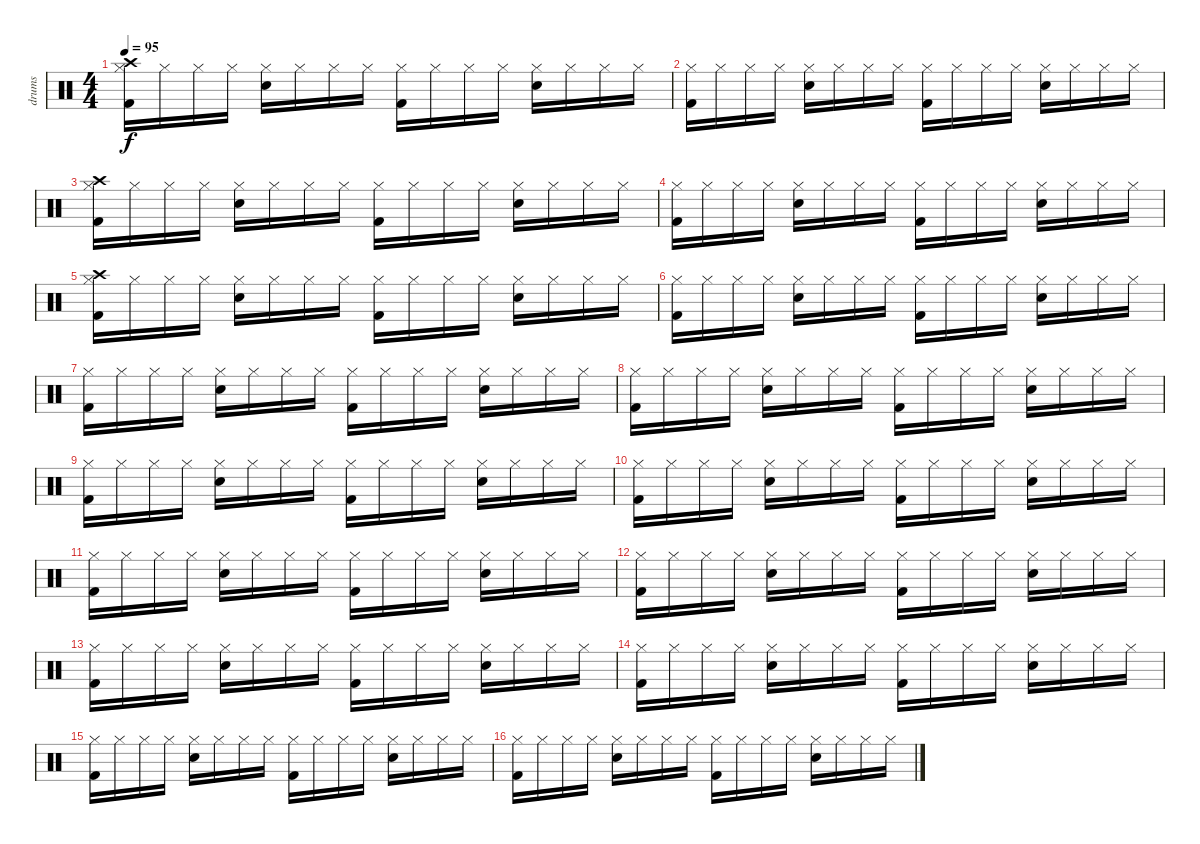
\track ("drums" "drums") {instrument percussion}
\staff {score}
\articulation defaults
\ts (4 4)
\tempo 95
\clef neutral
\ks c
("Crash high (hit)" "Kick (hit) 2" "Hi-Hat (closed)").16{dy f} "Hi-Hat (closed)".16 "Hi-Hat (closed)".16 "Hi-Hat (closed)".16 ("Snare (hit) 2" "Hi-Hat (closed)").16 "Hi-Hat (closed)".16 "Hi-Hat (closed)".16 "Hi-Hat (closed)".16 ("Kick (hit) 2" "Hi-Hat (closed)").16 "Hi-Hat (closed)".16 "Hi-Hat (closed)".16 "Hi-Hat (closed)".16 ("Snare (hit) 2" "Hi-Hat (closed)").16 "Hi-Hat (closed)".16 "Hi-Hat (closed)".16 "Hi-Hat (closed)".16 |
("Kick (hit) 2" "Hi-Hat (closed)").16 "Hi-Hat (closed)".16 "Hi-Hat (closed)".16 "Hi-Hat (closed)".16 ("Snare (hit) 2" "Hi-Hat (closed)").16 "Hi-Hat (closed)".16 "Hi-Hat (closed)".16 "Hi-Hat (closed)".16 ("Kick (hit) 2" "Hi-Hat (closed)").16 "Hi-Hat (closed)".16 "Hi-Hat (closed)".16 "Hi-Hat (closed)".16 ("Snare (hit) 2" "Hi-Hat (closed)").16 "Hi-Hat (closed)".16 "Hi-Hat (closed)".16 "Hi-Hat (closed)".16 |
("Crash high (hit)" "Kick (hit) 2" "Hi-Hat (closed)").16 "Hi-Hat (closed)".16 "Hi-Hat (closed)".16 "Hi-Hat (closed)".16 ("Snare (hit) 2" "Hi-Hat (closed)").16 "Hi-Hat (closed)".16 "Hi-Hat (closed)".16 "Hi-Hat (closed)".16 ("Kick (hit) 2" "Hi-Hat (closed)").16 "Hi-Hat (closed)".16 "Hi-Hat (closed)".16 "Hi-Hat (closed)".16 ("Snare (hit) 2" "Hi-Hat (closed)").16 "Hi-Hat (closed)".16 "Hi-Hat (closed)".16 "Hi-Hat (closed)".16 |
("Kick (hit) 2" "Hi-Hat (closed)").16 "Hi-Hat (closed)".16 "Hi-Hat (closed)".16 "Hi-Hat (closed)".16 ("Snare (hit) 2" "Hi-Hat (closed)").16 "Hi-Hat (closed)".16 "Hi-Hat (closed)".16 "Hi-Hat (closed)".16 ("Kick (hit) 2" "Hi-Hat (closed)").16 "Hi-Hat (closed)".16 "Hi-Hat (closed)".16 "Hi-Hat (closed)".16 ("Snare (hit) 2" "Hi-Hat (closed)").16 "Hi-Hat (closed)".16 "Hi-Hat (closed)".16 "Hi-Hat (closed)".16 |
("Crash high (hit)" "Kick (hit) 2" "Hi-Hat (closed)").16 "Hi-Hat (closed)".16 "Hi-Hat (closed)".16 "Hi-Hat (closed)".16 ("Snare (hit) 2" "Hi-Hat (closed)").16 "Hi-Hat (closed)".16 "Hi-Hat (closed)".16 "Hi-Hat (closed)".16 ("Kick (hit) 2" "Hi-Hat (closed)").16 "Hi-Hat (closed)".16 "Hi-Hat (closed)".16 "Hi-Hat (closed)".16 ("Snare (hit) 2" "Hi-Hat (closed)").16 "Hi-Hat (closed)".16 "Hi-Hat (closed)".16 "Hi-Hat (closed)".16 |
("Kick (hit) 2" "Hi-Hat (closed)").16 "Hi-Hat (closed)".16 "Hi-Hat (closed)".16 "Hi-Hat (closed)".16 ("Snare (hit) 2" "Hi-Hat (closed)").16 "Hi-Hat (closed)".16 "Hi-Hat (closed)".16 "Hi-Hat (closed)".16 ("Kick (hit) 2" "Hi-Hat (closed)").16 "Hi-Hat (closed)".16 "Hi-Hat (closed)".16 "Hi-Hat (closed)".16 ("Snare (hit) 2" "Hi-Hat (closed)").16 "Hi-Hat (closed)".16 "Hi-Hat (closed)".16 "Hi-Hat (closed)".16 |
("Kick (hit) 2" "Hi-Hat (closed)").16 "Hi-Hat (closed)".16 "Hi-Hat (closed)".16 "Hi-Hat (closed)".16 ("Snare (hit) 2" "Hi-Hat (closed)").16 "Hi-Hat (closed)".16 "Hi-Hat (closed)".16 "Hi-Hat (closed)".16 ("Kick (hit) 2" "Hi-Hat (closed)").16 "Hi-Hat (closed)".16 "Hi-Hat (closed)".16 "Hi-Hat (closed)".16 ("Snare (hit) 2" "Hi-Hat (closed)").16 "Hi-Hat (closed)".16 "Hi-Hat (closed)".16 "Hi-Hat (closed)".16 |
("Kick (hit) 2" "Hi-Hat (closed)").16 "Hi-Hat (closed)".16 "Hi-Hat (closed)".16 "Hi-Hat (closed)".16 ("Snare (hit) 2" "Hi-Hat (closed)").16 "Hi-Hat (closed)".16 "Hi-Hat (closed)".16 "Hi-Hat (closed)".16 ("Kick (hit) 2" "Hi-Hat (closed)").16 "Hi-Hat (closed)".16 "Hi-Hat (closed)".16 "Hi-Hat (closed)".16 ("Snare (hit) 2" "Hi-Hat (closed)").16 "Hi-Hat (closed)".16 "Hi-Hat (closed)".16 "Hi-Hat (closed)".16 |
("Kick (hit) 2" "Hi-Hat (closed)").16 "Hi-Hat (closed)".16 "Hi-Hat (closed)".16 "Hi-Hat (closed)".16 ("Snare (hit) 2" "Hi-Hat (closed)").16 "Hi-Hat (closed)".16 "Hi-Hat (closed)".16 "Hi-Hat (closed)".16 ("Kick (hit) 2" "Hi-Hat (closed)").16 "Hi-Hat (closed)".16 "Hi-Hat (closed)".16 "Hi-Hat (closed)".16 ("Snare (hit) 2" "Hi-Hat (closed)").16 "Hi-Hat (closed)".16 "Hi-Hat (closed)".16 "Hi-Hat (closed)".16 |
("Kick (hit) 2" "Hi-Hat (closed)").16 "Hi-Hat (closed)".16 "Hi-Hat (closed)".16 "Hi-Hat (closed)".16 ("Snare (hit) 2" "Hi-Hat (closed)").16 "Hi-Hat (closed)".16 "Hi-Hat (closed)".16 "Hi-Hat (closed)".16 ("Kick (hit) 2" "Hi-Hat (closed)").16 "Hi-Hat (closed)".16 "Hi-Hat (closed)".16 "Hi-Hat (closed)".16 ("Snare (hit) 2" "Hi-Hat (closed)").16 "Hi-Hat (closed)".16 "Hi-Hat (closed)".16 "Hi-Hat (closed)".16 |
("Kick (hit) 2" "Hi-Hat (closed)").16 "Hi-Hat (closed)".16 "Hi-Hat (closed)".16 "Hi-Hat (closed)".16 ("Snare (hit) 2" "Hi-Hat (closed)").16 "Hi-Hat (closed)".16 "Hi-Hat (closed)".16 "Hi-Hat (closed)".16 ("Kick (hit) 2" "Hi-Hat (closed)").16 "Hi-Hat (closed)".16 "Hi-Hat (closed)".16 "Hi-Hat (closed)".16 ("Snare (hit) 2" "Hi-Hat (closed)").16 "Hi-Hat (closed)".16 "Hi-Hat (closed)".16 "Hi-Hat (closed)".16 |
("Kick (hit) 2" "Hi-Hat (closed)").16 "Hi-Hat (closed)".16 "Hi-Hat (closed)".16 "Hi-Hat (closed)".16 ("Snare (hit) 2" "Hi-Hat (closed)").16 "Hi-Hat (closed)".16 "Hi-Hat (closed)".16 "Hi-Hat (closed)".16 ("Kick (hit) 2" "Hi-Hat (closed)").16 "Hi-Hat (closed)".16 "Hi-Hat (closed)".16 "Hi-Hat (closed)".16 ("Snare (hit) 2" "Hi-Hat (closed)").16 "Hi-Hat (closed)".16 "Hi-Hat (closed)".16 "Hi-Hat (closed)".16 |
("Kick (hit) 2" "Hi-Hat (closed)").16 "Hi-Hat (closed)".16 "Hi-Hat (closed)".16 "Hi-Hat (closed)".16 ("Snare (hit) 2" "Hi-Hat (closed)").16 "Hi-Hat (closed)".16 "Hi-Hat (closed)".16 "Hi-Hat (closed)".16 ("Kick (hit) 2" "Hi-Hat (closed)").16 "Hi-Hat (closed)".16 "Hi-Hat (closed)".16 "Hi-Hat (closed)".16 ("Snare (hit) 2" "Hi-Hat (closed)").16 "Hi-Hat (closed)".16 "Hi-Hat (closed)".16 "Hi-Hat (closed)".16 |
("Kick (hit) 2" "Hi-Hat (closed)").16 "Hi-Hat (closed)".16 "Hi-Hat (closed)".16 "Hi-Hat (closed)".16 ("Snare (hit) 2" "Hi-Hat (closed)").16 "Hi-Hat (closed)".16 "Hi-Hat (closed)".16 "Hi-Hat (closed)".16 ("Kick (hit) 2" "Hi-Hat (closed)").16 "Hi-Hat (closed)".16 "Hi-Hat (closed)".16 "Hi-Hat (closed)".16 ("Snare (hit) 2" "Hi-Hat (closed)").16 "Hi-Hat (closed)".16 "Hi-Hat (closed)".16 "Hi-Hat (closed)".16 |
("Kick (hit) 2" "Hi-Hat (closed)").16 "Hi-Hat (closed)".16 "Hi-Hat (closed)".16 "Hi-Hat (closed)".16 ("Snare (hit) 2" "Hi-Hat (closed)").16 "Hi-Hat (closed)".16 "Hi-Hat (closed)".16 "Hi-Hat (closed)".16 ("Kick (hit) 2" "Hi-Hat (closed)").16 "Hi-Hat (closed)".16 "Hi-Hat (closed)".16 "Hi-Hat (closed)".16 ("Snare (hit) 2" "Hi-Hat (closed)").16 "Hi-Hat (closed)".16 "Hi-Hat (closed)".16 "Hi-Hat (closed)".16 |
("Kick (hit) 2" "Hi-Hat (closed)").16 "Hi-Hat (closed)".16 "Hi-Hat (closed)".16 "Hi-Hat (closed)".16 ("Snare (hit) 2" "Hi-Hat (closed)").16 "Hi-Hat (closed)".16 "Hi-Hat (closed)".16 "Hi-Hat (closed)".16 ("Kick (hit) 2" "Hi-Hat (closed)").16 "Hi-Hat (closed)".16 "Hi-Hat (closed)".16 "Hi-Hat (closed)".16 ("Snare (hit) 2" "Hi-Hat (closed)").16 "Hi-Hat (closed)".16 "Hi-Hat (closed)".16 "Hi-Hat (closed)".16
